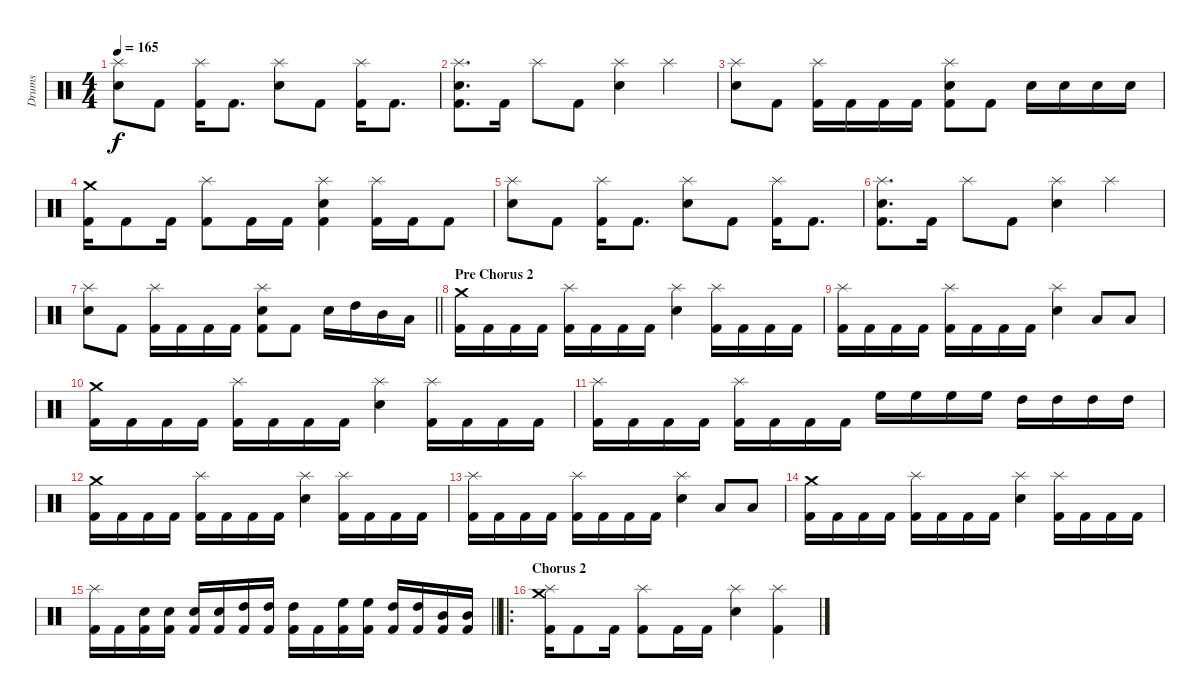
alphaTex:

\track ("Drums" "Drums") {instrument percussion}
\staff {score}
\articulation defaults
\ts (4 4)
\tempo 165
\clef neutral
\ks c
("Splash (hit)" "Snare (hit) 2").8{dy f} "Kick (hit) 2".8 ("Splash (hit)" "Kick (hit) 2").16 "Kick (hit) 2".8{d} ("Splash (hit)" "Snare (hit) 2").8 "Kick (hit) 2".8 ("Splash (hit)" "Kick (hit) 2").16 "Kick (hit) 2".8{d} |
("Splash (hit)" "Snare (hit) 2" "Kick (hit) 2").8{d} "Kick (hit) 2".16 "Splash (hit)".8 "Kick (hit) 2".8 ("Splash (hit)" "Snare (hit) 2").4 "Splash (hit)".4 |
("Splash (hit)" "Snare (hit) 2").8 "Kick (hit) 2".8 ("Splash (hit)" "Kick (hit) 2").16 "Kick (hit) 2".16 "Kick (hit) 2".16 "Kick (hit) 2".16 ("Splash (hit)" "Snare (hit) 2" "Kick (hit) 2").8 "Kick (hit) 2".8 "Snare (hit) 2".16 "Snare (hit) 2".16 "Snare (hit) 2".16 "Snare (hit) 2".16 |
("Crash medium (hit)" "Kick (hit) 2").16 "Kick (hit) 2".8 "Kick (hit) 2".16 ("Splash (hit)" "Kick (hit) 2").8 "Kick (hit) 2".16 "Kick (hit) 2".16 ("Splash (hit)" "Snare (hit) 2" "Kick (hit) 2").4 ("Splash (hit)" "Kick (hit) 2").16 "Kick (hit) 2".16 "Kick (hit) 2".8 |
("Splash (hit)" "Snare (hit) 2").8 "Kick (hit) 2".8 ("Splash (hit)" "Kick (hit) 2").16 "Kick (hit) 2".8{d} ("Splash (hit)" "Snare (hit) 2").8 "Kick (hit) 2".8 ("Splash (hit)" "Kick (hit) 2").16 "Kick (hit) 2".8{d} |
("Splash (hit)" "Snare (hit) 2" "Kick (hit) 2").8{d} "Kick (hit) 2".16 "Splash (hit)".8 "Kick (hit) 2".8 ("Splash (hit)" "Snare (hit) 2").4 "Splash (hit)".4 |
\barLineRight lightlight
("Splash (hit)" "Snare (hit) 2").8 "Kick (hit) 2".8 ("Splash (hit)" "Kick (hit) 2").16 "Kick (hit) 2".16 "Kick (hit) 2".16 "Kick (hit) 2".16 ("Splash (hit)" "Snare (hit) 2" "Kick (hit) 2").8 "Kick (hit) 2".8 "Snare (hit) 2".16 "High Tom (hit)".16 "Mid Tom (hit)".16 "Low Tom (hit)".16 |
\section ("" "Pre Chorus 2")
("Crash medium (hit)" "Kick (hit) 2").16 "Kick (hit) 2".16 "Kick (hit) 2".16 "Kick (hit) 2".16 ("Splash (hit)" "Kick (hit) 2").16 "Kick (hit) 2".16 "Kick (hit) 2".16 "Kick (hit) 2".16 ("Splash (hit)" "Snare (hit) 2").4 ("Splash (hit)" "Kick (hit) 2").16 "Kick (hit) 2".16 "Kick (hit) 2".16 "Kick (hit) 2".16 |
("Splash (hit)" "Kick (hit) 2").16 "Kick (hit) 2".16 "Kick (hit) 2".16 "Kick (hit) 2".16 ("Splash (hit)" "Kick (hit) 2").16 "Kick (hit) 2".16 "Kick (hit) 2".16 "Kick (hit) 2".16 ("Splash (hit)" "Snare (hit) 2").4 "Low Tom (hit)".8 "Low Tom (hit)".8 |
("Crash medium (hit)" "Kick (hit) 2").16 "Kick (hit) 2".16 "Kick (hit) 2".16 "Kick (hit) 2".16 ("Splash (hit)" "Kick (hit) 2").16 "Kick (hit) 2".16 "Kick (hit) 2".16 "Kick (hit) 2".16 ("Splash (hit)" "Snare (hit) 2").4 ("Splash (hit)" "Kick (hit) 2").16 "Kick (hit) 2".16 "Kick (hit) 2".16 "Kick (hit) 2".16 |
("Splash (hit)" "Kick (hit) 2").16 "Kick (hit) 2".16 "Kick (hit) 2".16 "Kick (hit) 2".16 ("Splash (hit)" "Kick (hit) 2").16 "Kick (hit) 2".16 "Kick (hit) 2".16 "Kick (hit) 2".16 "High Floor Tom (hit)".16 "High Floor Tom (hit)".16 "High Floor Tom (hit)".16 "High Floor Tom (hit)".16 "High Tom (hit)".16 "High Tom (hit)".16 "High Tom (hit)".16 "High Tom (hit)".16 |
("Crash medium (hit)" "Kick (hit) 2").16 "Kick (hit) 2".16 "Kick (hit) 2".16 "Kick (hit) 2".16 ("Splash (hit)" "Kick (hit) 2").16 "Kick (hit) 2".16 "Kick (hit) 2".16 "Kick (hit) 2".16 ("Splash (hit)" "Snare (hit) 2").4 ("Splash (hit)" "Kick (hit) 2").16 "Kick (hit) 2".16 "Kick (hit) 2".16 "Kick (hit) 2".16 |
("Splash (hit)" "Kick (hit) 2").16 "Kick (hit) 2".16 "Kick (hit) 2".16 "Kick (hit) 2".16 ("Splash (hit)" "Kick (hit) 2").16 "Kick (hit) 2".16 "Kick (hit) 2".16 "Kick (hit) 2".16 ("Splash (hit)" "Snare (hit) 2").4 "Low Tom (hit)".8 "Low Tom (hit)".8 |
("Crash medium (hit)" "Kick (hit) 2").16 "Kick (hit) 2".16 "Kick (hit) 2".16 "Kick (hit) 2".16 ("Splash (hit)" "Kick (hit) 2").16 "Kick (hit) 2".16 "Kick (hit) 2".16 "Kick (hit) 2".16 ("Splash (hit)" "Snare (hit) 2").4 ("Splash (hit)" "Kick (hit) 2").16 "Kick (hit) 2".16 "Kick (hit) 2".16 "Kick (hit) 2".16 |
\barLineRight lightlight
("Splash (hit)" "Kick (hit) 2").16 "Kick (hit) 2".16 ("Snare (hit) 2" "Kick (hit) 2").16 ("Snare (hit) 2" "Kick (hit) 2").16 ("Snare (hit) 2" "Kick (hit) 2").16 ("Snare (hit) 2" "Kick (hit) 2").16 ("High Tom (hit)" "Kick (hit) 2").16 ("High Tom (hit)" "Kick (hit) 2").16 ("High Tom (hit)" "Kick (hit) 2").16 "Kick (hit) 2".16 ("High Floor Tom (hit)" "Kick (hit) 2").16 ("High Floor Tom (hit)" "Kick (hit) 2").16 ("High Tom (hit)" "Kick (hit) 2").16 ("High Tom (hit)" "Kick (hit) 2").16 ("Mid Tom (hit)" "Kick (hit) 2").16 ("Mid Tom (hit)" "Kick (hit) 2").16 |
\ro
\section ("" "Chorus 2")
("Crash medium (hit)" "Splash (hit)" "Kick (hit) 2").16 "Kick (hit) 2".8 "Kick (hit) 2".16 ("Splash (hit)" "Kick (hit) 2").8 "Kick (hit) 2".16 "Kick (hit) 2".16 ("Splash (hit)" "Snare (hit) 2").4 ("Splash (hit)" "Kick (hit) 2").4
